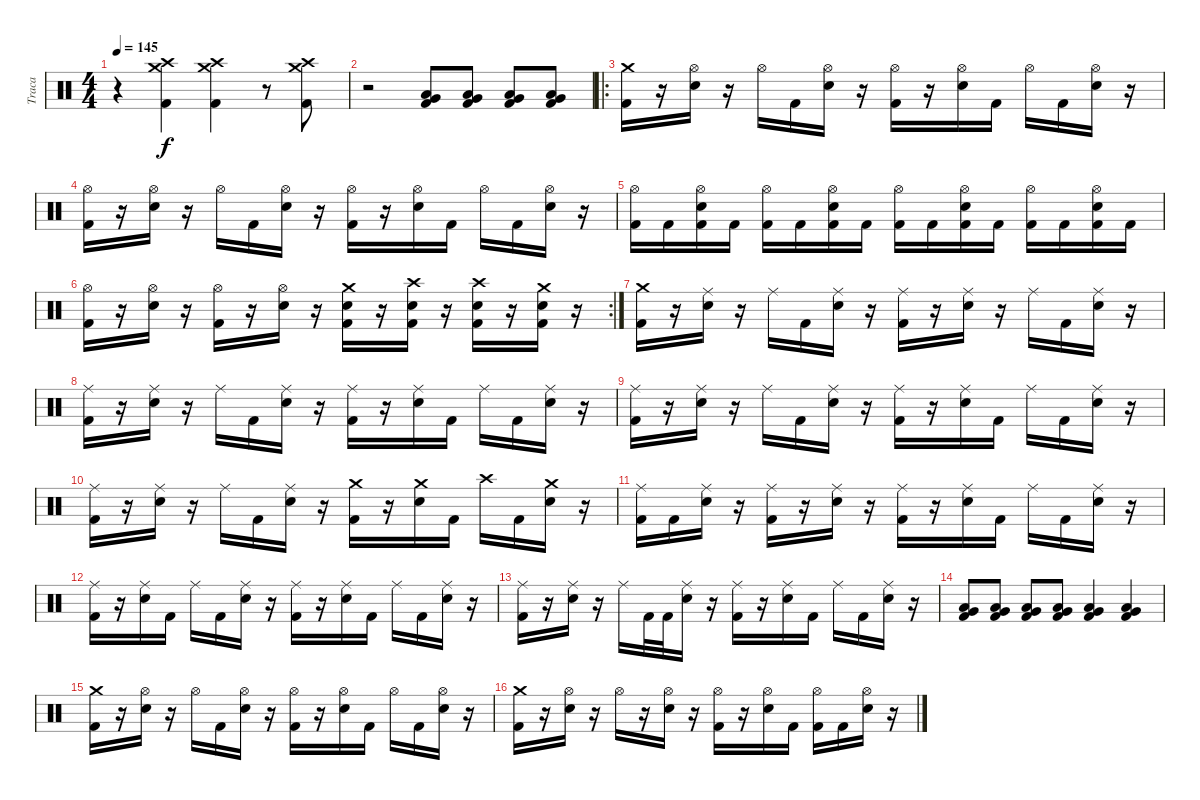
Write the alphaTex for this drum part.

\track ("Traca" "Traca") {instrument percussion}
\staff {score}
\articulation defaults
\ts (4 4)
\tempo 145
\clef neutral
\ks c
r.4{dy f} ("Crash high (hit)" "Crash medium (hit)" "Kick (hit) 2").4 ("Crash high (hit)" "Crash medium (hit)" "Kick (hit) 2").4 r.8 ("Crash high (hit)" "Crash medium (hit)" "Kick (hit) 2").8 |
r.2 ("Very Low Tom (hit)" "Low Floor Tom (hit)" "Kick (hit) 2").8 ("Very Low Tom (hit)" "Low Floor Tom (hit)" "Kick (hit) 2").8 ("Very Low Tom (hit)" "Low Floor Tom (hit)" "Kick (hit) 2").8 ("Very Low Tom (hit)" "Low Floor Tom (hit)" "Kick (hit) 2").8 |
\ro
("Crash medium (hit)" "Kick (hit) 2").16 r.16 ("Hi-Hat (open)" "Snare (hit) 2").16 r.16 "Hi-Hat (open)".16 "Kick (hit) 2".16 ("Hi-Hat (open)" "Snare (hit) 2").16 r.16 ("Hi-Hat (open)" "Kick (hit) 2").16 r.16 ("Hi-Hat (open)" "Snare (hit) 2").16 "Kick (hit) 2".16 "Hi-Hat (open)".16 "Kick (hit) 2".16 ("Hi-Hat (open)" "Snare (hit) 2").16 r.16 |
("Hi-Hat (open)" "Kick (hit) 2").16 r.16 ("Hi-Hat (open)" "Snare (hit) 2").16 r.16 "Hi-Hat (open)".16 "Kick (hit) 2".16 ("Hi-Hat (open)" "Snare (hit) 2").16 r.16 ("Hi-Hat (open)" "Kick (hit) 2").16 r.16 ("Hi-Hat (open)" "Snare (hit) 2").16 "Kick (hit) 2".16 "Hi-Hat (open)".16 "Kick (hit) 2".16 ("Hi-Hat (open)" "Snare (hit) 2").16 r.16 |
("Hi-Hat (open)" "Kick (hit) 2").16 "Kick (hit) 2".16 ("Hi-Hat (open)" "Snare (hit) 2" "Kick (hit) 2").16 "Kick (hit) 2".16 ("Hi-Hat (open)" "Kick (hit) 2").16 "Kick (hit) 2".16 ("Hi-Hat (open)" "Snare (hit) 2" "Kick (hit) 2").16 "Kick (hit) 2".16 ("Hi-Hat (open)" "Kick (hit) 2").16 "Kick (hit) 2".16 ("Hi-Hat (open)" "Snare (hit) 2" "Kick (hit) 2").16 "Kick (hit) 2".16 ("Hi-Hat (open)" "Kick (hit) 2").16 "Kick (hit) 2".16 ("Hi-Hat (open)" "Snare (hit) 2" "Kick (hit) 2").16 "Kick (hit) 2".16 |
\rc 2
("Hi-Hat (open)" "Kick (hit) 2").16 r.16 ("Hi-Hat (open)" "Snare (hit) 2").16 r.16 ("Hi-Hat (open)" "Kick (hit) 2").16 r.16 ("Hi-Hat (open)" "Snare (hit) 2").16 r.16 ("Crash medium (hit)" "Snare (hit) 2" "Kick (hit) 2").16 r.16 ("Crash high (hit)" "Snare (hit) 2" "Kick (hit) 2").16 r.16 ("Crash high (hit)" "Snare (hit) 2" "Kick (hit) 2").16 r.16 ("Crash medium (hit)" "Snare (hit) 2" "Kick (hit) 2").16 r.16 |
("Crash medium (hit)" "Kick (hit) 2").16 r.16 ("Ride (middle)" "Snare (hit) 2").16 r.16 "Ride (middle)".16 "Kick (hit) 2".16 ("Ride (middle)" "Snare (hit) 2").16 r.16 ("Ride (middle)" "Kick (hit) 2").16 r.16 ("Ride (middle)" "Snare (hit) 2").16 r.16 "Ride (middle)".16 "Kick (hit) 2".16 ("Ride (middle)" "Snare (hit) 2").16 r.16 |
("Ride (middle)" "Kick (hit) 2").16 r.16 ("Ride (middle)" "Snare (hit) 2").16 r.16 "Ride (middle)".16 "Kick (hit) 2".16 ("Ride (middle)" "Snare (hit) 2").16 r.16 ("Ride (middle)" "Kick (hit) 2").16 r.16 ("Ride (middle)" "Snare (hit) 2").16 "Kick (hit) 2".16 "Ride (middle)".16 "Kick (hit) 2".16 ("Ride (middle)" "Snare (hit) 2").16 r.16 |
("Ride (middle)" "Kick (hit) 2").16 r.16 ("Ride (middle)" "Snare (hit) 2").16 r.16 "Ride (middle)".16 "Kick (hit) 2".16 ("Ride (middle)" "Snare (hit) 2").16 r.16 ("Ride (middle)" "Kick (hit) 2").16 r.16 ("Ride (middle)" "Snare (hit) 2").16 "Kick (hit) 2".16 "Ride (middle)".16 "Kick (hit) 2".16 ("Ride (middle)" "Snare (hit) 2").16 r.16 |
("Ride (middle)" "Kick (hit) 2").16 r.16 ("Ride (middle)" "Snare (hit) 2").16 r.16 "Ride (middle)".16 "Kick (hit) 2".16 ("Ride (middle)" "Snare (hit) 2").16 r.16 ("Crash medium (hit)" "Kick (hit) 2").16 r.16 ("Crash medium (hit)" "Snare (hit) 2").16 "Kick (hit) 2".16 "Crash high (hit)".16 "Kick (hit) 2".16 ("Crash medium (hit)" "Snare (hit) 2").16 r.16 |
("Ride (middle)" "Kick (hit) 2").16 "Kick (hit) 2".16 ("Ride (middle)" "Snare (hit) 2").16 r.16 ("Ride (middle)" "Kick (hit) 2").16 r.16 ("Ride (middle)" "Snare (hit) 2").16 r.16 ("Ride (middle)" "Kick (hit) 2").16 r.16 ("Ride (middle)" "Snare (hit) 2").16 "Kick (hit) 2".16 "Ride (middle)".16 "Kick (hit) 2".16 ("Ride (middle)" "Snare (hit) 2").16 r.16 |
("Ride (middle)" "Kick (hit) 2").16 r.16 ("Ride (middle)" "Snare (hit) 2").16 "Kick (hit) 2".16 "Ride (middle)".16 "Kick (hit) 2".16 ("Ride (middle)" "Snare (hit) 2").16 r.16 ("Ride (middle)" "Kick (hit) 2").16 r.16 ("Ride (middle)" "Snare (hit) 2").16 "Kick (hit) 2".16 "Ride (middle)".16 "Kick (hit) 2".16 ("Ride (middle)" "Snare (hit) 2").16 r.16 |
("Ride (middle)" "Kick (hit) 2").16 r.16 ("Ride (middle)" "Snare (hit) 2").16 r.16 "Ride (middle)".16 "Kick (hit) 2".32 "Kick (hit) 2".32 ("Ride (middle)" "Snare (hit) 2").16 r.16 ("Ride (middle)" "Kick (hit) 2").16 r.16 ("Ride (middle)" "Snare (hit) 2").16 "Kick (hit) 2".16 "Ride (middle)".16 "Kick (hit) 2".16 ("Ride (middle)" "Snare (hit) 2").16 r.16 |
("Very Low Tom (hit)" "Low Floor Tom (hit)" "Kick (hit) 2").8 ("Very Low Tom (hit)" "Low Floor Tom (hit)" "Kick (hit) 2").8 ("Very Low Tom (hit)" "Low Floor Tom (hit)" "Kick (hit) 2").8 ("Very Low Tom (hit)" "Low Floor Tom (hit)" "Kick (hit) 2").8 ("Very Low Tom (hit)" "Low Floor Tom (hit)" "Kick (hit) 2").4 ("Very Low Tom (hit)" "Low Floor Tom (hit)" "Kick (hit) 2").4 |
("Crash medium (hit)" "Kick (hit) 2").16 r.16 ("Hi-Hat (open)" "Snare (hit) 2").16 r.16 "Hi-Hat (open)".16 "Kick (hit) 2".16 ("Hi-Hat (open)" "Snare (hit) 2").16 r.16 ("Hi-Hat (open)" "Kick (hit) 2").16 r.16 ("Hi-Hat (open)" "Snare (hit) 2").16 "Kick (hit) 2".16 "Hi-Hat (open)".16 "Kick (hit) 2".16 ("Hi-Hat (open)" "Snare (hit) 2").16 r.16 |
("Crash medium (hit)" "Kick (hit) 2").16 r.16 ("Hi-Hat (open)" "Snare (hit) 2").16 r.16 "Hi-Hat (open)".16 r.16 ("Hi-Hat (open)" "Snare (hit) 2").16 r.16 ("Hi-Hat (open)" "Kick (hit) 2").16 r.16 ("Hi-Hat (open)" "Snare (hit) 2").16 "Kick (hit) 2".16 ("Hi-Hat (open)" "Kick (hit) 2").16 "Kick (hit) 2".16 ("Hi-Hat (open)" "Snare (hit) 2").16 r.16
